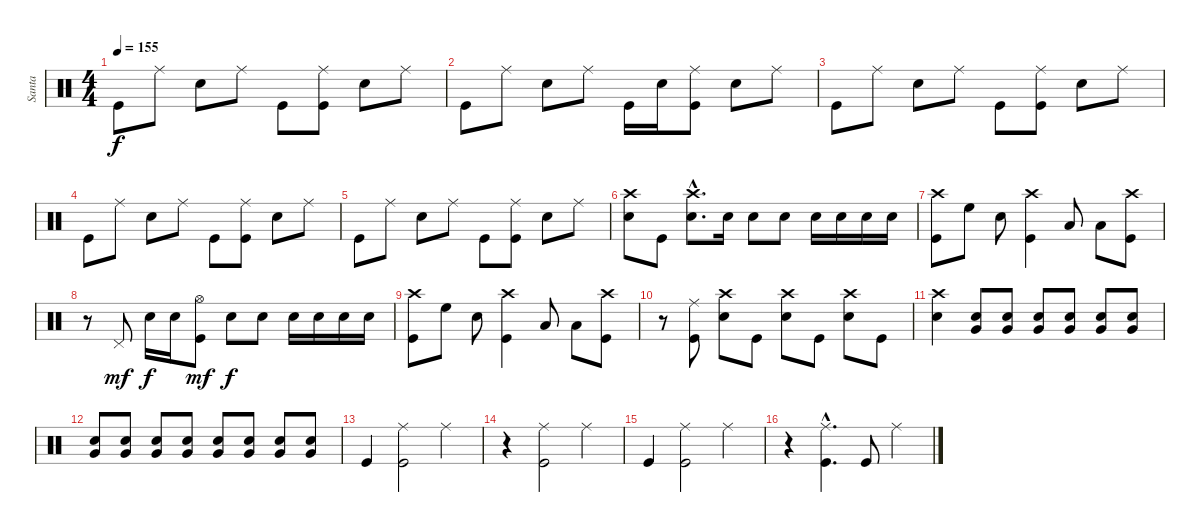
\track ("Santa" "Santa") {instrument percussion}
\staff {score}
\articulation defaults
\ts (4 4)
\tempo 155
\clef neutral
\ks c "Kick (hit)".8{dy f} "Ride (middle)".8 "Snare (hit) 2".8 "Ride (middle)".8 "Kick (hit)".8
("Ride (middle)" "Kick (hit)").8 "Snare (hit) 2".8 "Ride (middle)".8 |
"Kick (hit)".8 "Ride (middle)".8 "Snare (hit) 2".8 "Ride (middle)".8 "Kick (hit)".16 "Snare (hit) 2".16 ("Kick (hit)" "Ride (middle)").8 "Snare (hit) 2".8 "Ride (middle)".8 |
"Kick (hit)".8 "Ride (middle)".8 "Snare (hit) 2".8 "Ride (middle)".8 "Kick (hit)".8 ("Ride (middle)" "Kick (hit)").8 "Snare (hit) 2".8 "Ride (middle)".8 |
"Kick (hit)".8 "Ride (middle)".8 "Snare (hit) 2".8 "Ride (middle)".8 "Kick (hit)".8 ("Kick (hit)" "Ride (middle)").8 "Snare (hit) 2".8 "Ride (middle)".8 |
"Kick (hit)".8 "Ride (middle)".8 "Snare (hit) 2".8 "Ride (middle)".8 "Kick (hit)".8 ("Ride (middle)" "Kick (hit)").8 "Snare (hit) 2".8 "Ride (middle)".8 |
("Snare (hit) 2" "Crash high (hit)").8 "Kick (hit)".8 ("Snare (hit) 2"{hac} "Crash high (hit)"{hac}).8{d} "Snare (hit) 2".16 "Snare (hit) 2".8 "Snare (hit) 2".8 "Snare (hit) 2".16 "Snare (hit) 2".16 "Snare (hit) 2".16 "Snare (hit) 2".16 |
("Crash high (hit)" "Kick (hit)").8 "High Floor Tom (hit)".8 "Snare (hit) 2".8 ("Crash high (hit)" "Kick (hit)").4 "Low Tom (hit)".8 "Low Tom (hit)".8 ("Crash high (hit)" "Kick (hit)").8 |
r.8 "Pedal Hi-Hat (hit)".8{dy mf} "Snare (hit) 2".16{dy f} "Snare (hit) 2".16 ("Kick (hit)" "Hi-Hat (open)").8{dy mf} "Snare (hit) 2".8{dy f} "Snare (hit) 2".8 "Snare (hit) 2".16 "Snare (hit) 2".16 "Snare (hit) 2".16 "Snare (hit) 2".16 |
("Kick (hit)" "Crash high (hit)").8 "High Floor Tom (hit)".8 "Snare (hit) 2".8 ("Kick (hit)" "Crash high (hit)").4 "Low Tom (hit)".8 "Low Tom (hit)".8 ("Kick (hit)" "Crash high (hit)").8 |
r.8 ("Kick (hit)" "Ride (middle)").8 ("Crash high (hit)" "Snare (hit) 2").8 "Kick (hit)".8 ("Crash high (hit)" "Snare (hit) 2").8 "Kick (hit)".8 ("Crash high (hit)" "Snare (hit) 2").8 "Kick (hit)".8 |
("Snare (hit) 2" "Crash high (hit)").4 ("Snare (hit) 2" "Very Low Tom (hit)").8 ("Snare (hit) 2" "Very Low Tom (hit)").8 ("Snare (hit) 2" "Very Low Tom (hit)").8 ("Snare (hit) 2" "Very Low Tom (hit)").8 ("Snare (hit) 2" "Very Low Tom (hit)").8 ("Snare (hit) 2" "Very Low Tom (hit)").8 |
("Very Low Tom (hit)" "Snare (hit) 2").8 ("Very Low Tom (hit)" "Snare (hit) 2").8 ("Very Low Tom (hit)" "Snare (hit) 2").8 ("Very Low Tom (hit)" "Snare (hit) 2").8 ("Very Low Tom (hit)" "Snare (hit) 2").8 ("Very Low Tom (hit)" "Snare (hit) 2").8 ("Very Low Tom (hit)" "Snare (hit) 2").8 ("Very Low Tom (hit)" "Snare (hit) 2").8 |
"Kick (hit)".4 ("Kick (hit)" "Ride (middle)").2 "Ride (middle)".4 |
r.4 ("Ride (middle)" "Kick (hit)").2 "Ride (middle)".4 |
"Kick (hit)".4 ("Kick (hit)" "Ride (middle)").2 "Ride (middle)".4 |
r.4 ("Ride (middle)"{hac} "Kick (hit)"{hac}).4{d} "Kick (hit)".8 "Ride (middle)".4
